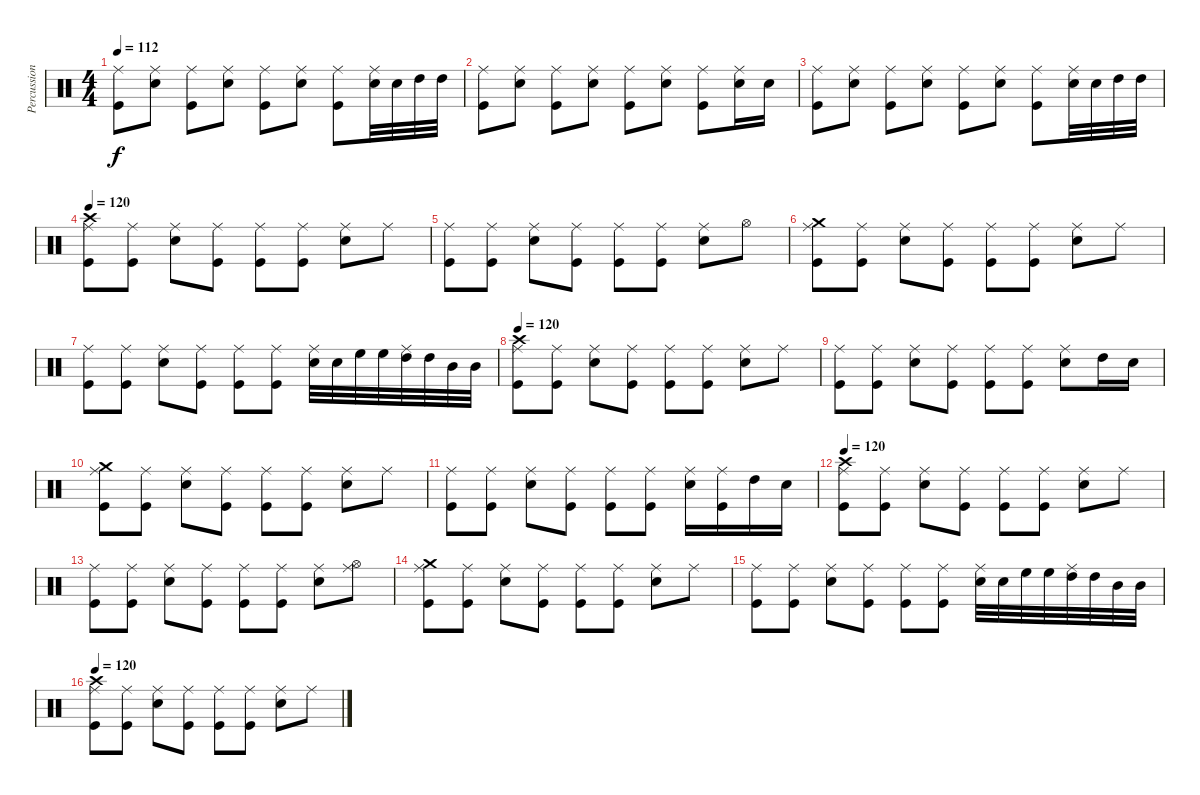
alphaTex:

\track ("Percussion" "Percussion") {instrument percussion}
\staff {score}
\articulation defaults
\ts (4 4)
\tempo 112
\clef neutral
\ks c
("Ride (middle)" "Kick (hit)").8{dy f} ("Ride (middle)" "Snare (hit) 2").8 ("Ride (middle)" "Kick (hit)").8 ("Ride (middle)" "Snare (hit) 2").8 ("Ride (middle)" "Kick (hit)").8 ("Ride (middle)" "Snare (hit) 2").8 ("Ride (middle)" "Kick (hit)").8 ("Ride (middle)" "Snare (hit) 2").32 "Snare (hit) 2".32 "High Tom (hit)".32 "High Tom (hit)".32 |
("Ride (middle)" "Kick (hit)").8 ("Ride (middle)" "Snare (hit) 2").8 ("Ride (middle)" "Kick (hit)").8 ("Ride (middle)" "Snare (hit) 2").8 ("Ride (middle)" "Kick (hit)").8 ("Ride (middle)" "Snare (hit) 2").8 ("Ride (middle)" "Kick (hit)").8 ("Ride (middle)" "Snare (hit) 2").16 "Snare (hit) 2".16 |
("Ride (middle)" "Kick (hit)").8 ("Ride (middle)" "Snare (hit) 2").8 ("Ride (middle)" "Kick (hit)").8 ("Ride (middle)" "Snare (hit) 2").8 ("Ride (middle)" "Kick (hit)").8 ("Ride (middle)" "Snare (hit) 2").8 ("Ride (middle)" "Kick (hit)").8 ("Ride (middle)" "Snare (hit) 2").32 "Snare (hit) 2".32 "High Tom (hit)".32 "High Tom (hit)".32 |
\tempo 120
("Crash high (hit)" "Ride (middle)" "Kick (hit)").8 ("Ride (middle)" "Kick (hit)").8 ("Ride (middle)" "Snare (hit) 2").8 ("Ride (middle)" "Kick (hit)").8 ("Ride (middle)" "Kick (hit)").8 ("Ride (middle)" "Kick (hit)").8 ("Ride (middle)" "Snare (hit) 2").8 "Ride (middle)".8 |
("Ride (middle)" "Kick (hit)").8 ("Ride (middle)" "Kick (hit)").8 ("Ride (middle)" "Snare (hit) 2").8 ("Ride (middle)" "Kick (hit)").8 ("Ride (middle)" "Kick (hit)").8 ("Ride (middle)" "Kick (hit)").8 ("Ride (middle)" "Snare (hit) 2").8 "Hi-Hat (open)".8 |
("Crash medium (hit)" "Ride (middle)" "Kick (hit)").8 ("Ride (middle)" "Kick (hit)").8 ("Ride (middle)" "Snare (hit) 2").8 ("Ride (middle)" "Kick (hit)").8 ("Ride (middle)" "Kick (hit)").8 ("Ride (middle)" "Kick (hit)").8 ("Ride (middle)" "Snare (hit) 2").8 "Ride (middle)".8 |
("Ride (middle)" "Kick (hit)").8 ("Ride (middle)" "Kick (hit)").8 ("Ride (middle)" "Snare (hit) 2").8 ("Ride (middle)" "Kick (hit)").8 ("Ride (middle)" "Kick (hit)").8 ("Ride (middle)" "Kick (hit)").8 ("Ride (middle)" "Snare (hit) 2").32 "Snare (hit) 2".32 "High Floor Tom (hit)".32 "High Floor Tom (hit)".32 ("Ride (middle)" "High Tom (hit)").32 "High Tom (hit)".32 "Mid Tom (hit)".32 "Mid Tom (hit)".32 |
\tempo 120
("Crash high (hit)" "Ride (middle)" "Kick (hit)").8 ("Ride (middle)" "Kick (hit)").8 ("Ride (middle)" "Snare (hit) 2").8 ("Ride (middle)" "Kick (hit)").8 ("Ride (middle)" "Kick (hit)").8 ("Ride (middle)" "Kick (hit)").8 ("Ride (middle)" "Snare (hit) 2").8 "Ride (middle)".8 |
("Ride (middle)" "Kick (hit)").8 ("Ride (middle)" "Kick (hit)").8 ("Ride (middle)" "Snare (hit) 2").8 ("Ride (middle)" "Kick (hit)").8 ("Ride (middle)" "Kick (hit)").8 ("Ride (middle)" "Kick (hit)").8 ("Ride (middle)" "Snare (hit) 2").8 "High Tom (hit)".16 "Snare (hit) 2".16 |
("Crash medium (hit)" "Ride (middle)" "Kick (hit)").8 ("Ride (middle)" "Kick (hit)").8 ("Ride (middle)" "Snare (hit) 2").8 ("Ride (middle)" "Kick (hit)").8 ("Ride (middle)" "Kick (hit)").8 ("Ride (middle)" "Kick (hit)").8 ("Ride (middle)" "Snare (hit) 2").8 "Ride (middle)".8 |
("Ride (middle)" "Kick (hit)").8 ("Ride (middle)" "Kick (hit)").8 ("Ride (middle)" "Snare (hit) 2").8 ("Ride (middle)" "Kick (hit)").8 ("Ride (middle)" "Kick (hit)").8 ("Ride (middle)" "Kick (hit)").8 ("Ride (middle)" "Snare (hit) 2").16 ("Ride (middle)" "Kick (hit)").16 "High Tom (hit)".16 "Snare (hit) 2".16 |
\tempo 120
("Crash high (hit)" "Ride (middle)" "Kick (hit)").8 ("Ride (middle)" "Kick (hit)").8 ("Ride (middle)" "Snare (hit) 2").8 ("Ride (middle)" "Kick (hit)").8 ("Ride (middle)" "Kick (hit)").8 ("Ride (middle)" "Kick (hit)").8 ("Ride (middle)" "Snare (hit) 2").8 "Ride (middle)".8 |
("Ride (middle)" "Kick (hit)").8 ("Ride (middle)" "Kick (hit)").8 ("Ride (middle)" "Snare (hit) 2").8 ("Ride (middle)" "Kick (hit)").8 ("Ride (middle)" "Kick (hit)").8 ("Ride (middle)" "Kick (hit)").8 ("Ride (middle)" "Snare (hit) 2").8 ("Ride (middle)" "Hi-Hat (open)").8 |
("Crash medium (hit)" "Ride (middle)" "Kick (hit)").8 ("Ride (middle)" "Kick (hit)").8 ("Ride (middle)" "Snare (hit) 2").8 ("Ride (middle)" "Kick (hit)").8 ("Ride (middle)" "Kick (hit)").8 ("Ride (middle)" "Kick (hit)").8 ("Ride (middle)" "Snare (hit) 2").8 "Ride (middle)".8 |
("Ride (middle)" "Kick (hit)").8 ("Ride (middle)" "Kick (hit)").8 ("Ride (middle)" "Snare (hit) 2").8 ("Ride (middle)" "Kick (hit)").8 ("Ride (middle)" "Kick (hit)").8 ("Ride (middle)" "Kick (hit)").8 ("Ride (middle)" "Snare (hit) 2").32 "Snare (hit) 2".32 "High Floor Tom (hit)".32 "High Floor Tom (hit)".32 ("Ride (middle)" "High Tom (hit)").32 "High Tom (hit)".32 "Mid Tom (hit)".32 "Mid Tom (hit)".32 |
\tempo 120
("Crash high (hit)" "Ride (middle)" "Kick (hit)").8 ("Ride (middle)" "Kick (hit)").8 ("Ride (middle)" "Snare (hit) 2").8 ("Ride (middle)" "Kick (hit)").8 ("Ride (middle)" "Kick (hit)").8 ("Ride (middle)" "Kick (hit)").8 ("Ride (middle)" "Snare (hit) 2").8 "Ride (middle)".8
